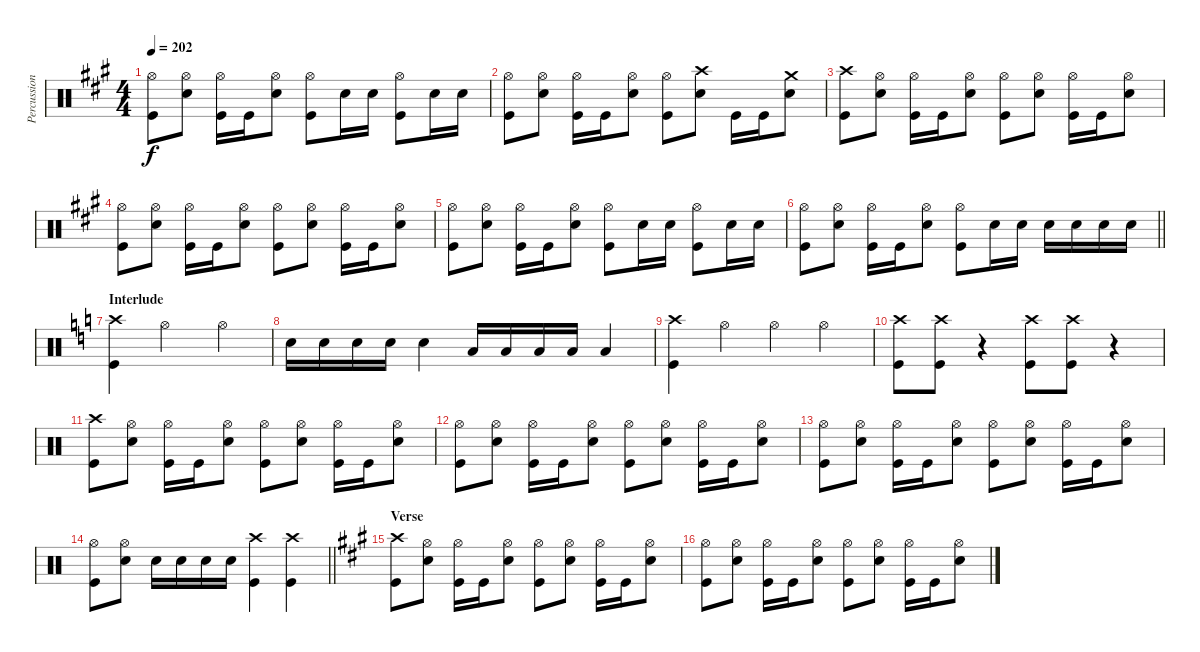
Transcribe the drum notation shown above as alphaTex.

\track ("Percussion" "Percussion") {instrument percussion}
\staff {score}
\articulation defaults
\ts (4 4)
\tempo 202
\clef neutral
\ks a
("Hi-Hat (open)" "Kick (hit)").8{dy f} ("Hi-Hat (open)" "Electric Snare (hit)").8 ("Hi-Hat (open)" "Kick (hit)").16 "Kick (hit)".16 ("Hi-Hat (open)" "Electric Snare (hit)").8 ("Hi-Hat (open)" "Kick (hit)").8 "Electric Snare (hit)".16 "Electric Snare (hit)".16 ("Hi-Hat (open)" "Kick (hit)").8 "Electric Snare (hit)".16 "Electric Snare (hit)".16 |
("Hi-Hat (open)" "Kick (hit)").8 ("Hi-Hat (open)" "Electric Snare (hit)").8 ("Hi-Hat (open)" "Kick (hit)").16 "Kick (hit)".16 ("Hi-Hat (open)" "Electric Snare (hit)").8 ("Hi-Hat (open)" "Kick (hit)").8 ("Crash high (hit)" "Electric Snare (hit)").8 "Kick (hit)".16 "Kick (hit)".16 ("Crash medium (hit)" "Electric Snare (hit)").8 |
("Crash high (hit)" "Kick (hit)").8 ("Hi-Hat (open)" "Electric Snare (hit)").8 ("Hi-Hat (open)" "Kick (hit)").16 "Kick (hit)".16 ("Hi-Hat (open)" "Electric Snare (hit)").8 ("Hi-Hat (open)" "Kick (hit)").8 ("Hi-Hat (open)" "Electric Snare (hit)").8 ("Hi-Hat (open)" "Kick (hit)").16 "Kick (hit)".16 ("Hi-Hat (open)" "Electric Snare (hit)").8 |
("Hi-Hat (open)" "Kick (hit)").8 ("Hi-Hat (open)" "Electric Snare (hit)").8 ("Hi-Hat (open)" "Kick (hit)").16 "Kick (hit)".16 ("Hi-Hat (open)" "Electric Snare (hit)").8 ("Hi-Hat (open)" "Kick (hit)").8 ("Hi-Hat (open)" "Electric Snare (hit)").8 ("Hi-Hat (open)" "Kick (hit)").16 "Kick (hit)".16 ("Hi-Hat (open)" "Electric Snare (hit)").8 |
("Hi-Hat (open)" "Kick (hit)").8 ("Hi-Hat (open)" "Electric Snare (hit)").8 ("Hi-Hat (open)" "Kick (hit)").16 "Kick (hit)".16 ("Hi-Hat (open)" "Electric Snare (hit)").8 ("Hi-Hat (open)" "Kick (hit)").8 "Electric Snare (hit)".16 "Electric Snare (hit)".16 ("Hi-Hat (open)" "Kick (hit)").8 "Electric Snare (hit)".16 "Electric Snare (hit)".16 |
\barLineRight lightlight
("Hi-Hat (open)" "Kick (hit)").8 ("Hi-Hat (open)" "Electric Snare (hit)").8 ("Hi-Hat (open)" "Kick (hit)").16 "Kick (hit)".16 ("Hi-Hat (open)" "Electric Snare (hit)").8 ("Hi-Hat (open)" "Kick (hit)").8 "Electric Snare (hit)".16 "Electric Snare (hit)".16 "Electric Snare (hit)".16 "Electric Snare (hit)".16 "Electric Snare (hit)".16 "Electric Snare (hit)".16 |
\section ("" "Interlude")
\ks c
("Crash high (hit)" "Kick (hit)").4 "Hi-Hat (open)".2 "Hi-Hat (open)".4 |
"Electric Snare (hit)".16 "Electric Snare (hit)".16 "Electric Snare (hit)".16 "Electric Snare (hit)".16 "Electric Snare (hit)".4 "Low Floor Tom (hit)".16 "Low Floor Tom (hit)".16 "Low Floor Tom (hit)".16 "Low Floor Tom (hit)".16 "Low Floor Tom (hit)".4 |
("Crash high (hit)" "Kick (hit)").4 "Hi-Hat (open)".4 "Hi-Hat (open)".4 "Hi-Hat (open)".4 |
("Crash high (hit)" "Kick (hit)").8 ("Crash high (hit)" "Kick (hit)").8 r.4 ("Crash high (hit)" "Kick (hit)").8 ("Crash high (hit)" "Kick (hit)").8 r.4 |
("Crash high (hit)" "Kick (hit)").8 ("Hi-Hat (open)" "Electric Snare (hit)").8 ("Hi-Hat (open)" "Kick (hit)").16 "Kick (hit)".16 ("Hi-Hat (open)" "Electric Snare (hit)").8 ("Hi-Hat (open)" "Kick (hit)").8 ("Hi-Hat (open)" "Electric Snare (hit)").8 ("Hi-Hat (open)" "Kick (hit)").16 "Kick (hit)".16 ("Hi-Hat (open)" "Electric Snare (hit)").8 |
("Hi-Hat (open)" "Kick (hit)").8 ("Hi-Hat (open)" "Electric Snare (hit)").8 ("Hi-Hat (open)" "Kick (hit)").16 "Kick (hit)".16 ("Hi-Hat (open)" "Electric Snare (hit)").8 ("Hi-Hat (open)" "Kick (hit)").8 ("Hi-Hat (open)" "Electric Snare (hit)").8 ("Hi-Hat (open)" "Kick (hit)").16 "Kick (hit)".16 ("Hi-Hat (open)" "Electric Snare (hit)").8 |
("Hi-Hat (open)" "Kick (hit)").8 ("Hi-Hat (open)" "Electric Snare (hit)").8 ("Hi-Hat (open)" "Kick (hit)").16 "Kick (hit)".16 ("Hi-Hat (open)" "Electric Snare (hit)").8 ("Hi-Hat (open)" "Kick (hit)").8 ("Hi-Hat (open)" "Electric Snare (hit)").8 ("Hi-Hat (open)" "Kick (hit)").16 "Kick (hit)".16 ("Hi-Hat (open)" "Electric Snare (hit)").8 |
\barLineRight lightlight
("Hi-Hat (open)" "Kick (hit)").8 ("Hi-Hat (open)" "Electric Snare (hit)").8 "Electric Snare (hit)".16 "Electric Snare (hit)".16 "Electric Snare (hit)".16 "Electric Snare (hit)".16 ("Crash high (hit)" "Kick (hit)").4 ("Crash high (hit)" "Kick (hit)").4 |
\section ("" "Verse")
\ks a
("Crash high (hit)" "Kick (hit)").8 ("Hi-Hat (open)" "Electric Snare (hit)").8 ("Hi-Hat (open)" "Kick (hit)").16 "Kick (hit)".16 ("Hi-Hat (open)" "Electric Snare (hit)").8 ("Hi-Hat (open)" "Kick (hit)").8 ("Hi-Hat (open)" "Electric Snare (hit)").8 ("Hi-Hat (open)" "Kick (hit)").16 "Kick (hit)".16 ("Hi-Hat (open)" "Electric Snare (hit)").8 |
("Hi-Hat (open)" "Kick (hit)").8 ("Hi-Hat (open)" "Electric Snare (hit)").8 ("Hi-Hat (open)" "Kick (hit)").16 "Kick (hit)".16 ("Hi-Hat (open)" "Electric Snare (hit)").8 ("Hi-Hat (open)" "Kick (hit)").8 ("Hi-Hat (open)" "Electric Snare (hit)").8 ("Hi-Hat (open)" "Kick (hit)").16 "Kick (hit)".16 ("Hi-Hat (open)" "Electric Snare (hit)").8
